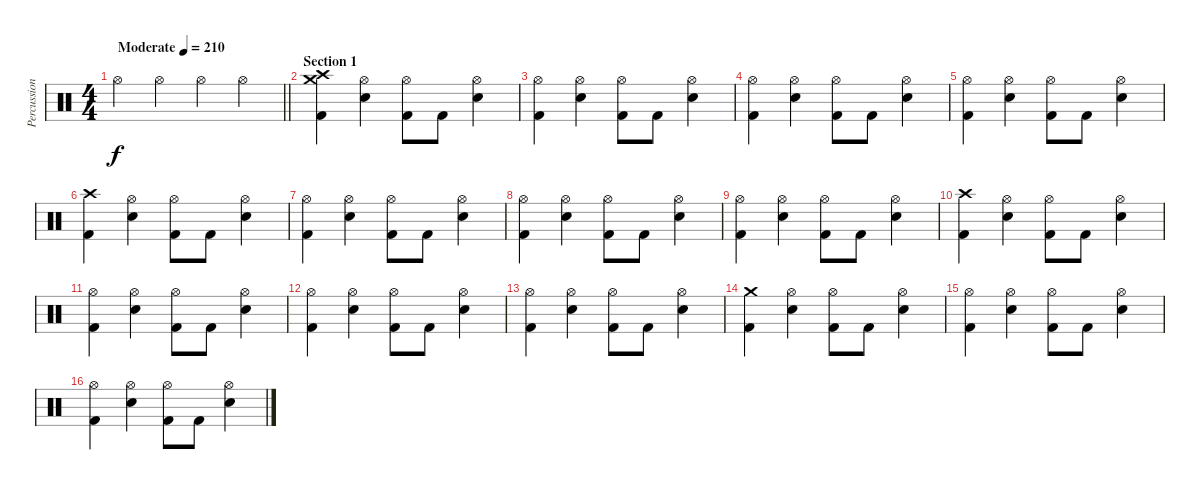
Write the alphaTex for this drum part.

\track ("Percussion" "Percussion") {instrument percussion}
\staff {score}
\articulation defaults
\ts (4 4)
\tempo (210 "Moderate")
\clef neutral
\barLineRight lightlight
\ks c "Hi-Hat (open)".4{dy f} "Hi-Hat (open)".4 "Hi-Hat (open)".4 "Hi-Hat (open)".4
|
\section ("" "Section 1")
("Kick (hit) 2" "Crash medium (hit)" "Crash high (hit)").4 ("Electric Snare (hit)" "Hi-Hat (open)").4 ("Kick (hit) 2" "Hi-Hat (open)").8 "Kick (hit) 2".8 ("Electric Snare (hit)" "Hi-Hat (open)").4 |
("Kick (hit) 2" "Hi-Hat (open)").4 ("Electric Snare (hit)" "Hi-Hat (open)").4 ("Kick (hit) 2" "Hi-Hat (open)").8 "Kick (hit) 2".8 ("Electric Snare (hit)" "Hi-Hat (open)").4 |
("Kick (hit) 2" "Hi-Hat (open)").4 ("Electric Snare (hit)" "Hi-Hat (open)").4 ("Kick (hit) 2" "Hi-Hat (open)").8 "Kick (hit) 2".8 ("Electric Snare (hit)" "Hi-Hat (open)").4 |
("Kick (hit) 2" "Hi-Hat (open)").4 ("Electric Snare (hit)" "Hi-Hat (open)").4 ("Kick (hit) 2" "Hi-Hat (open)").8 "Kick (hit) 2".8 ("Electric Snare (hit)" "Hi-Hat (open)").4 |
("Kick (hit) 2" "Crash high (hit)").4 ("Electric Snare (hit)" "Hi-Hat (open)").4 ("Kick (hit) 2" "Hi-Hat (open)").8 "Kick (hit) 2".8 ("Electric Snare (hit)" "Hi-Hat (open)").4 |
("Kick (hit) 2" "Hi-Hat (open)").4 ("Electric Snare (hit)" "Hi-Hat (open)").4 ("Kick (hit) 2" "Hi-Hat (open)").8 "Kick (hit) 2".8 ("Electric Snare (hit)" "Hi-Hat (open)").4 |
("Kick (hit) 2" "Hi-Hat (open)").4 ("Electric Snare (hit)" "Hi-Hat (open)").4 ("Kick (hit) 2" "Hi-Hat (open)").8 "Kick (hit) 2".8 ("Electric Snare (hit)" "Hi-Hat (open)").4 |
("Kick (hit) 2" "Hi-Hat (open)").4 ("Electric Snare (hit)" "Hi-Hat (open)").4 ("Kick (hit) 2" "Hi-Hat (open)").8 "Kick (hit) 2".8 ("Electric Snare (hit)" "Hi-Hat (open)").4 |
("Kick (hit) 2" "Crash high (hit)").4 ("Electric Snare (hit)" "Hi-Hat (open)").4 ("Kick (hit) 2" "Hi-Hat (open)").8 "Kick (hit) 2".8 ("Electric Snare (hit)" "Hi-Hat (open)").4 |
("Kick (hit) 2" "Hi-Hat (open)").4 ("Electric Snare (hit)" "Hi-Hat (open)").4 ("Kick (hit) 2" "Hi-Hat (open)").8 "Kick (hit) 2".8 ("Electric Snare (hit)" "Hi-Hat (open)").4 |
("Kick (hit) 2" "Hi-Hat (open)").4 ("Electric Snare (hit)" "Hi-Hat (open)").4 ("Kick (hit) 2" "Hi-Hat (open)").8 "Kick (hit) 2".8 ("Electric Snare (hit)" "Hi-Hat (open)").4 |
("Kick (hit) 2" "Hi-Hat (open)").4 ("Electric Snare (hit)" "Hi-Hat (open)").4 ("Kick (hit) 2" "Hi-Hat (open)").8 "Kick (hit) 2".8 ("Electric Snare (hit)" "Hi-Hat (open)").4 |
("Kick (hit) 2" "Crash medium (hit)").4 ("Electric Snare (hit)" "Hi-Hat (open)").4 ("Kick (hit) 2" "Hi-Hat (open)").8 "Kick (hit) 2".8 ("Electric Snare (hit)" "Hi-Hat (open)").4 |
("Kick (hit) 2" "Hi-Hat (open)").4 ("Electric Snare (hit)" "Hi-Hat (open)").4 ("Kick (hit) 2" "Hi-Hat (open)").8 "Kick (hit) 2".8 ("Electric Snare (hit)" "Hi-Hat (open)").4 |
("Kick (hit) 2" "Hi-Hat (open)").4 ("Electric Snare (hit)" "Hi-Hat (open)").4 ("Kick (hit) 2" "Hi-Hat (open)").8 "Kick (hit) 2".8 ("Electric Snare (hit)" "Hi-Hat (open)").4
